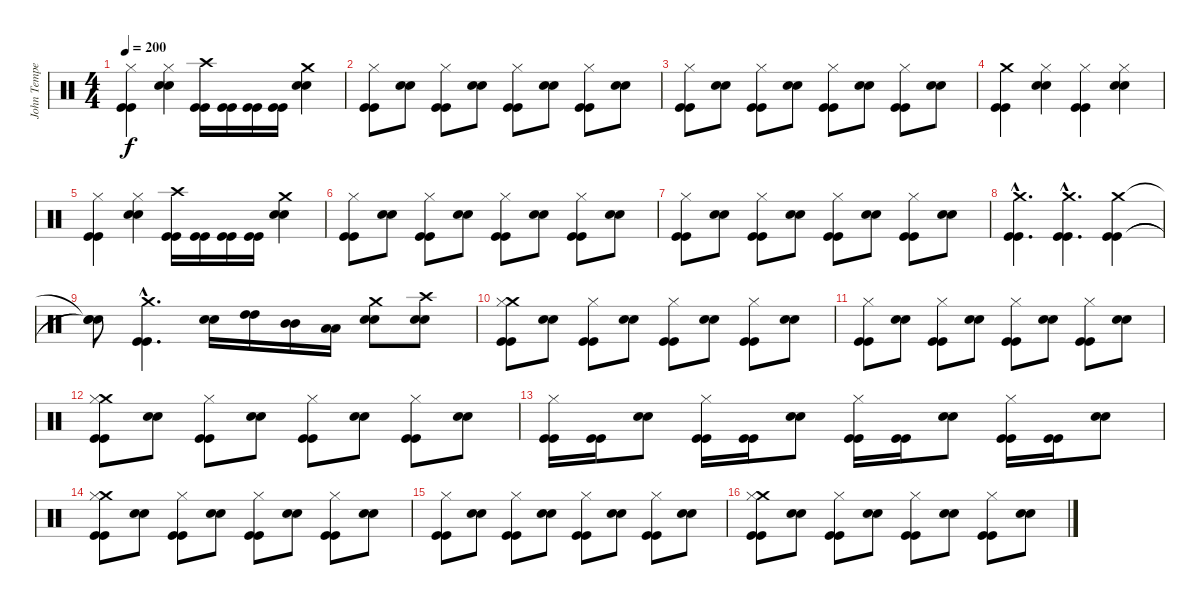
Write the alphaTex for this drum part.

\track ("John Tempesta" "John Tempe") {instrument percussion}
\staff {score}
\articulation defaults
\ts (4 4)
\tempo 200
\clef neutral
\ks c
("Hi-Hat (closed)" "Kick (hit)" "Kick (hit)").4{dy f} ("Snare (hit) 2" "Snare (hit) 2" "Hi-Hat (closed)").4 ("Crash high (hit)" "Kick (hit)" "Kick (hit)").16 ("Kick (hit)" "Kick (hit)").16 ("Kick (hit)" "Kick (hit)").16 ("Kick (hit)" "Kick (hit)").16 ("Crash medium (hit)" "Snare (hit) 2" "Snare (hit) 2").4 |
("Hi-Hat (closed)" "Kick (hit)" "Kick (hit)").8 ("Snare (hit) 2" "Snare (hit) 2").8 ("Hi-Hat (closed)" "Kick (hit)" "Kick (hit)").8 ("Snare (hit) 2" "Snare (hit) 2").8 ("Hi-Hat (closed)" "Kick (hit)" "Kick (hit)").8 ("Snare (hit) 2" "Snare (hit) 2").8 ("Hi-Hat (closed)" "Kick (hit)" "Kick (hit)").8 ("Snare (hit) 2" "Snare (hit) 2").8 |
("Hi-Hat (closed)" "Kick (hit)" "Kick (hit)").8 ("Snare (hit) 2" "Snare (hit) 2").8 ("Hi-Hat (closed)" "Kick (hit)" "Kick (hit)").8 ("Snare (hit) 2" "Snare (hit) 2").8 ("Hi-Hat (closed)" "Kick (hit)" "Kick (hit)").8 ("Snare (hit) 2" "Snare (hit) 2").8 ("Hi-Hat (closed)" "Kick (hit)" "Kick (hit)").8 ("Snare (hit) 2" "Snare (hit) 2").8 |
("Crash medium (hit)" "Kick (hit)" "Kick (hit)").4 ("Snare (hit) 2" "Snare (hit) 2" "Hi-Hat (closed)").4 ("Hi-Hat (closed)" "Kick (hit)" "Kick (hit)").4 ("Snare (hit) 2" "Snare (hit) 2" "Hi-Hat (closed)").4 |
("Hi-Hat (closed)" "Kick (hit)" "Kick (hit)").4 ("Snare (hit) 2" "Snare (hit) 2" "Hi-Hat (closed)").4 ("Crash high (hit)" "Kick (hit)" "Kick (hit)").16 ("Kick (hit)" "Kick (hit)").16 ("Kick (hit)" "Kick (hit)").16 ("Kick (hit)" "Kick (hit)").16 ("Crash medium (hit)" "Snare (hit) 2" "Snare (hit) 2").4 |
("Hi-Hat (closed)" "Kick (hit)" "Kick (hit)").8 ("Snare (hit) 2" "Snare (hit) 2").8 ("Hi-Hat (closed)" "Kick (hit)" "Kick (hit)").8 ("Snare (hit) 2" "Snare (hit) 2").8 ("Hi-Hat (closed)" "Kick (hit)" "Kick (hit)").8 ("Snare (hit) 2" "Snare (hit) 2").8 ("Hi-Hat (closed)" "Kick (hit)" "Kick (hit)").8 ("Snare (hit) 2" "Snare (hit) 2").8 |
("Hi-Hat (closed)" "Kick (hit)" "Kick (hit)").8 ("Snare (hit) 2" "Snare (hit) 2").8 ("Hi-Hat (closed)" "Kick (hit)" "Kick (hit)").8 ("Snare (hit) 2" "Snare (hit) 2").8 ("Hi-Hat (closed)" "Kick (hit)" "Kick (hit)").8 ("Snare (hit) 2" "Snare (hit) 2").8 ("Hi-Hat (closed)" "Kick (hit)" "Kick (hit)").8 ("Snare (hit) 2" "Snare (hit) 2").8 |
("Crash medium (hit)"{hac} "Kick (hit)"{hac} "Kick (hit)"{hac}).4{d} ("Crash medium (hit)"{hac} "Kick (hit)"{hac} "Kick (hit)"{hac}).4{d} ("Crash medium (hit)" "Kick (hit)" "Kick (hit)").4 |
("Snare (hit)"{t} "Snare (hit)"{t} "Snare (hit)"{t}).8 ("Crash medium (hit)"{hac} "Kick (hit)"{hac} "Kick (hit)"{hac}).4{d} ("Snare (hit) 2" "Snare (hit) 2").16 ("High Tom (hit)" "High Tom (hit)").16 ("Mid Tom (hit)" "Mid Tom (hit)").16 ("Low Tom (hit)" "Low Tom (hit)").16 ("Crash medium (hit)" "Snare (hit) 2" "Snare (hit) 2").8 ("Crash high (hit)" "Snare (hit) 2" "Snare (hit) 2").8 |
("Crash medium (hit)" "Hi-Hat (closed)" "Kick (hit)" "Kick (hit)").8 ("Snare (hit) 2" "Snare (hit) 2").8 ("Hi-Hat (closed)" "Kick (hit)" "Kick (hit)").8 ("Snare (hit) 2" "Snare (hit) 2").8 ("Hi-Hat (closed)" "Kick (hit)" "Kick (hit)").8 ("Snare (hit) 2" "Snare (hit) 2").8 ("Hi-Hat (closed)" "Kick (hit)" "Kick (hit)").8 ("Snare (hit) 2" "Snare (hit) 2").8 |
("Hi-Hat (closed)" "Kick (hit)" "Kick (hit)").8 ("Snare (hit) 2" "Snare (hit) 2").8 ("Hi-Hat (closed)" "Kick (hit)" "Kick (hit)").8 ("Snare (hit) 2" "Snare (hit) 2").8 ("Hi-Hat (closed)" "Kick (hit)" "Kick (hit)").8 ("Snare (hit) 2" "Snare (hit) 2").8 ("Hi-Hat (closed)" "Kick (hit)" "Kick (hit)").8 ("Snare (hit) 2" "Snare (hit) 2").8 |
("Crash medium (hit)" "Hi-Hat (closed)" "Kick (hit)" "Kick (hit)").8 ("Snare (hit) 2" "Snare (hit) 2").8 ("Hi-Hat (closed)" "Kick (hit)" "Kick (hit)").8 ("Snare (hit) 2" "Snare (hit) 2").8 ("Hi-Hat (closed)" "Kick (hit)" "Kick (hit)").8 ("Snare (hit) 2" "Snare (hit) 2").8 ("Hi-Hat (closed)" "Kick (hit)" "Kick (hit)").8 ("Snare (hit) 2" "Snare (hit) 2").8 |
("Hi-Hat (closed)" "Kick (hit)" "Kick (hit)").16 ("Kick (hit)" "Kick (hit)").16 ("Snare (hit) 2" "Snare (hit) 2").8 ("Hi-Hat (closed)" "Kick (hit)" "Kick (hit)").16 ("Kick (hit)" "Kick (hit)").16 ("Snare (hit) 2" "Snare (hit) 2").8 ("Hi-Hat (closed)" "Kick (hit)" "Kick (hit)").16 ("Kick (hit)" "Kick (hit)").16 ("Snare (hit) 2" "Snare (hit) 2").8 ("Hi-Hat (closed)" "Kick (hit)" "Kick (hit)").16 ("Kick (hit)" "Kick (hit)").16 ("Snare (hit) 2" "Snare (hit) 2").8 |
("Crash medium (hit)" "Hi-Hat (closed)" "Kick (hit)" "Kick (hit)").8 ("Snare (hit) 2" "Snare (hit) 2").8 ("Hi-Hat (closed)" "Kick (hit)" "Kick (hit)").8 ("Snare (hit) 2" "Snare (hit) 2").8 ("Hi-Hat (closed)" "Kick (hit)" "Kick (hit)").8 ("Snare (hit) 2" "Snare (hit) 2").8 ("Hi-Hat (closed)" "Kick (hit)" "Kick (hit)").8 ("Snare (hit) 2" "Snare (hit) 2").8 |
("Hi-Hat (closed)" "Kick (hit)" "Kick (hit)").8 ("Snare (hit) 2" "Snare (hit) 2").8 ("Hi-Hat (closed)" "Kick (hit)" "Kick (hit)").8 ("Snare (hit) 2" "Snare (hit) 2").8 ("Hi-Hat (closed)" "Kick (hit)" "Kick (hit)").8 ("Snare (hit) 2" "Snare (hit) 2").8 ("Hi-Hat (closed)" "Kick (hit)" "Kick (hit)").8 ("Snare (hit) 2" "Snare (hit) 2").8 |
("Crash medium (hit)" "Hi-Hat (closed)" "Kick (hit)" "Kick (hit)").8 ("Snare (hit) 2" "Snare (hit) 2").8 ("Hi-Hat (closed)" "Kick (hit)" "Kick (hit)").8 ("Snare (hit) 2" "Snare (hit) 2").8 ("Hi-Hat (closed)" "Kick (hit)" "Kick (hit)").8 ("Snare (hit) 2" "Snare (hit) 2").8 ("Hi-Hat (closed)" "Kick (hit)" "Kick (hit)").8 ("Snare (hit) 2" "Snare (hit) 2").8
